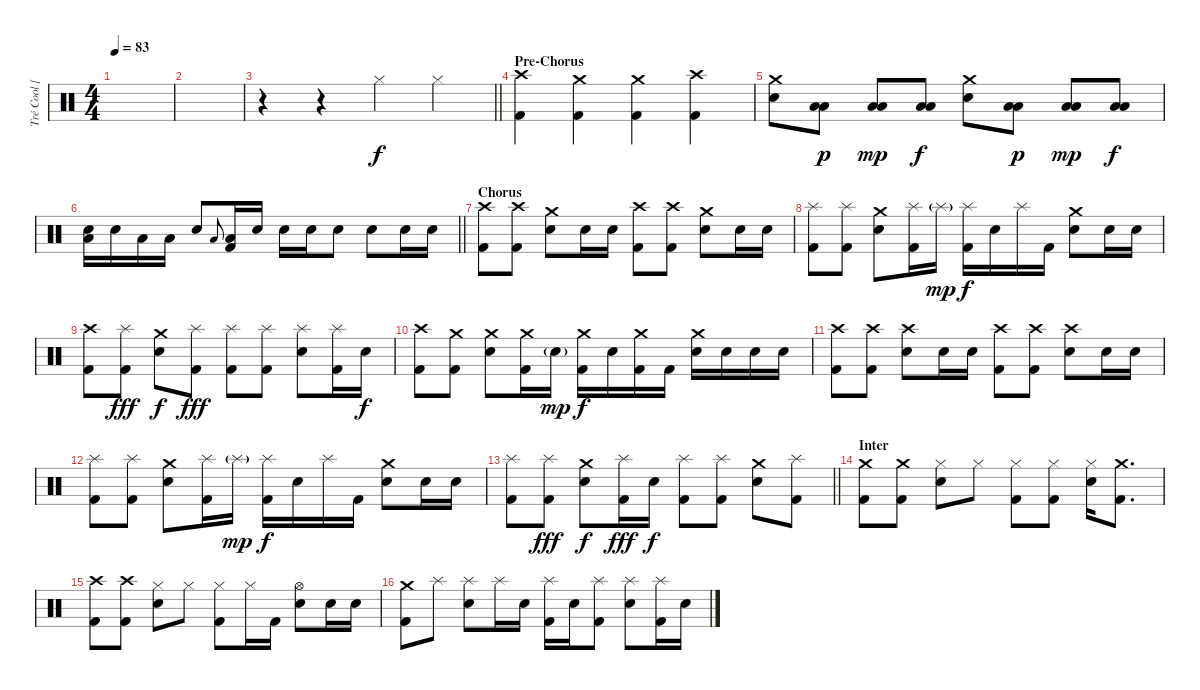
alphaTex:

\track ("Tré Cool [Drums]" "Tré Cool [") {instrument percussion}
\staff {score}
\articulation defaults
\ts (4 4)
\tempo 83
\clef neutral
\ks c
|
|
\barLineRight lightlight
r.4 r.4 "Hi-Hat (closed)".4 "Hi-Hat (closed)".4 |
\section ("" "Pre-Chorus")
("Crash high (hit)" "Kick (hit) 2").4 ("Crash medium (hit)" "Kick (hit) 2").4 ("Crash medium (hit)" "Kick (hit) 2").4 ("Crash high (hit)" "Kick (hit) 2").4 |
("Crash medium (hit)" "Electric Snare (hit)").8 ("Low Floor Tom (hit)" "Low Tom (hit)").8{dy p} ("Low Floor Tom (hit)" "Low Tom (hit)").8{dy mp} ("Low Floor Tom (hit)" "Low Tom (hit)").8{dy f} ("Crash medium (hit)" "Electric Snare (hit)").8 ("Low Floor Tom (hit)" "Low Tom (hit)").8{dy p} ("Low Floor Tom (hit)" "Low Tom (hit)").8{dy mp} ("Low Floor Tom (hit)" "Low Tom (hit)").8{dy f} |
\barLineRight lightlight
("Low Floor Tom (hit)" "Electric Snare (hit)").16 "Electric Snare (hit)".16 "Low Tom (hit)".16 "Low Floor Tom (hit)".16 "Electric Snare (hit)".8 "Low Floor Tom (hit)".8{gr onbeat} ("Low Floor Tom (hit)" "Kick (hit) 2").16 "Electric Snare (hit)".16 "Electric Snare (hit)".16 "Electric Snare (hit)".16 "Electric Snare (hit)".8 "Electric Snare (hit)".8 "Electric Snare (hit)".16 "Electric Snare (hit)".16 |
\section ("" "Chorus")
("Crash high (hit)" "Kick (hit) 2").8 ("Crash high (hit)" "Kick (hit) 2").8 ("Crash medium (hit)" "Electric Snare (hit)").8 "Electric Snare (hit)".16 "Electric Snare (hit)".16 ("Crash high (hit)" "Kick (hit) 2").8 ("Crash high (hit)" "Kick (hit) 2").8 ("Crash medium (hit)" "Electric Snare (hit)").8 "Electric Snare (hit)".16 "Electric Snare (hit)".16 |
("Splash (hit)" "Kick (hit) 2").8 ("Splash (hit)" "Kick (hit) 2").8 ("Crash medium (hit)" "Electric Snare (hit)").8 ("Splash (hit)" "Kick (hit) 2").16 "Splash (hit)"{g}.16{dy mp} ("Splash (hit)" "Kick (hit) 2").16{dy f} "Electric Snare (hit)".16 "Splash (hit)".16 "Kick (hit) 2".16 ("Crash medium (hit)" "Electric Snare (hit)").8 "Electric Snare (hit)".16 "Electric Snare (hit)".16 |
("Crash high (hit)" "Kick (hit) 2").8 ("Splash (hit)" "Kick (hit) 2").8{dy fff} ("Crash medium (hit)" "Electric Snare (hit)").8{dy f} ("Splash (hit)" "Kick (hit) 2").8{dy fff} ("Splash (hit)" "Kick (hit) 2").8 ("Splash (hit)" "Kick (hit) 2").8 ("Splash (hit)" "Electric Snare (hit)").8 ("Splash (hit)" "Kick (hit) 2").16 "Electric Snare (hit)".16{dy f} |
("Crash high (hit)" "Kick (hit) 2").8 ("Crash medium (hit)" "Kick (hit) 2").8 ("Crash medium (hit)" "Electric Snare (hit)").8 ("Crash medium (hit)" "Kick (hit) 2").16 "Electric Snare (hit)"{g}.16{dy mp} ("Crash medium (hit)" "Kick (hit) 2").16{dy f} "Electric Snare (hit)".16 ("Crash medium (hit)" "Kick (hit) 2").16 "Kick (hit) 2".16 ("Crash medium (hit)" "Electric Snare (hit)").16 "Electric Snare (hit)".16 "Electric Snare (hit)".16 "Electric Snare (hit)".16 |
("Crash high (hit)" "Kick (hit) 2").8 ("Crash high (hit)" "Kick (hit) 2").8 ("Crash high (hit)" "Electric Snare (hit)").8 "Electric Snare (hit)".16 "Electric Snare (hit)".16 ("Crash high (hit)" "Kick (hit) 2").8 ("Crash high (hit)" "Kick (hit) 2").8 ("Crash high (hit)" "Electric Snare (hit)").8 "Electric Snare (hit)".16 "Electric Snare (hit)".16 |
("Splash (hit)" "Kick (hit) 2").8 ("Splash (hit)" "Kick (hit) 2").8 ("Crash medium (hit)" "Electric Snare (hit)").8 ("Splash (hit)" "Kick (hit) 2").16 "Splash (hit)"{g}.16{dy mp} ("Splash (hit)" "Kick (hit) 2").16{dy f} "Electric Snare (hit)".16 "Splash (hit)".16 "Kick (hit) 2".16 ("Crash medium (hit)" "Electric Snare (hit)").8 "Electric Snare (hit)".16 "Electric Snare (hit)".16 |
\barLineRight lightlight
("Splash (hit)" "Kick (hit) 2").8 ("Splash (hit)" "Kick (hit) 2").8{dy fff} ("Crash medium (hit)" "Electric Snare (hit)").8{dy f} ("Splash (hit)" "Kick (hit) 2").16{dy fff} "Electric Snare (hit)".16{dy f} ("Splash (hit)" "Kick (hit) 2").8 ("Splash (hit)" "Kick (hit) 2").8 ("Crash medium (hit)" "Electric Snare (hit)").8 ("Splash (hit)" "Kick (hit) 2").8 |
\section ("" "Inter")
("Crash medium (hit)" "Kick (hit) 2").8 ("Crash medium (hit)" "Kick (hit) 2").8 ("Hi-Hat (closed)" "Electric Snare (hit)").8 "Hi-Hat (closed)".8 ("Hi-Hat (closed)" "Kick (hit) 2").8 ("Hi-Hat (closed)" "Kick (hit) 2").8 ("Hi-Hat (closed)" "Electric Snare (hit)").16 ("Crash medium (hit)" "Kick (hit) 2").8{d} |
("Crash high (hit)" "Kick (hit) 2").8 ("Crash high (hit)" "Kick (hit) 2").8 ("Hi-Hat (closed)" "Electric Snare (hit)").8 "Hi-Hat (closed)".8 ("Hi-Hat (closed)" "Kick (hit) 2").8 "Hi-Hat (closed)".16 "Kick (hit) 2".16 ("Hi-Hat (open)" "Electric Snare (hit)").8 "Electric Snare (hit)".16 "Electric Snare (hit)".16 |
("Crash medium (hit)" "Kick (hit) 2").8 "Splash (hit)".8 ("Splash (hit)" "Electric Snare (hit)").8 "Splash (hit)".16 "Electric Snare (hit)".16 ("Splash (hit)" "Kick (hit) 2").16 "Electric Snare (hit)".16 ("Splash (hit)" "Kick (hit) 2").8 ("Splash (hit)" "Electric Snare (hit)").8 ("Splash (hit)" "Kick (hit) 2").16 "Electric Snare (hit)".16
